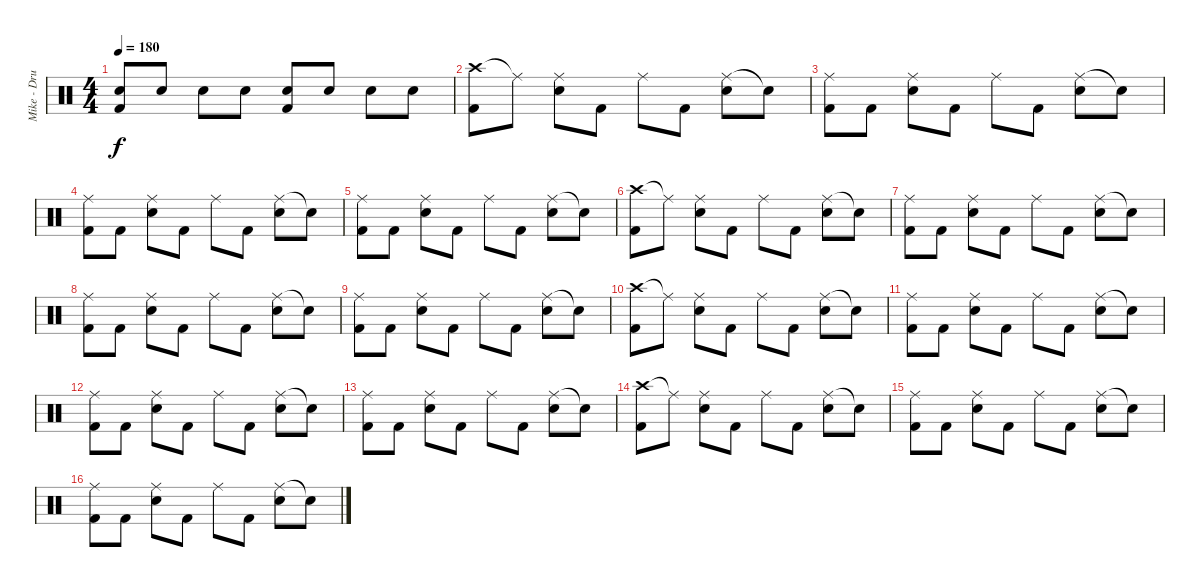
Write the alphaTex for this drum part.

\track ("Mike - Drums" "Mike - Dru") {instrument percussion}
\staff {score}
\articulation defaults
\ts (4 4)
\tempo 180
\clef neutral
\ks c
("Snare (hit) 2" "Kick (hit) 2").8{dy f} "Snare (hit) 2".8 "Snare (hit) 2".8 "Snare (hit) 2".8 ("Snare (hit) 2" "Kick (hit) 2").8 "Snare (hit) 2".8 "Snare (hit) 2".8 "Snare (hit) 2".8 |
("Crash high (hit)" "Kick (hit) 2").8 "Ride (middle)"{t}.8 ("Ride (middle)" "Snare (hit) 2").8 "Kick (hit) 2".8 "Ride (middle)".8 "Kick (hit) 2".8 ("Ride (middle)" "Snare (hit) 2").8 "Snare (hit)"{t}.8 |
("Ride (middle)" "Kick (hit) 2").8 "Kick (hit) 2".8 ("Ride (middle)" "Snare (hit) 2").8 "Kick (hit) 2".8 "Ride (middle)".8 "Kick (hit) 2".8 ("Ride (middle)" "Snare (hit) 2").8 "Snare (hit)"{t}.8 |
("Ride (middle)" "Kick (hit) 2").8 "Kick (hit) 2".8 ("Ride (middle)" "Snare (hit) 2").8 "Kick (hit) 2".8 "Ride (middle)".8 "Kick (hit) 2".8 ("Ride (middle)" "Snare (hit) 2").8 "Snare (hit)"{t}.8 |
("Ride (middle)" "Kick (hit) 2").8 "Kick (hit) 2".8 ("Ride (middle)" "Snare (hit) 2").8 "Kick (hit) 2".8 "Ride (middle)".8 "Kick (hit) 2".8 ("Ride (middle)" "Snare (hit) 2").8 "Snare (hit)"{t}.8 |
("Crash high (hit)" "Kick (hit) 2").8 "Ride (middle)"{t}.8 ("Ride (middle)" "Snare (hit) 2").8 "Kick (hit) 2".8 "Ride (middle)".8 "Kick (hit) 2".8 ("Ride (middle)" "Snare (hit) 2").8 "Snare (hit)"{t}.8 |
("Ride (middle)" "Kick (hit) 2").8 "Kick (hit) 2".8 ("Ride (middle)" "Snare (hit) 2").8 "Kick (hit) 2".8 "Ride (middle)".8 "Kick (hit) 2".8 ("Ride (middle)" "Snare (hit) 2").8 "Snare (hit)"{t}.8 |
("Ride (middle)" "Kick (hit) 2").8 "Kick (hit) 2".8 ("Ride (middle)" "Snare (hit) 2").8 "Kick (hit) 2".8 "Ride (middle)".8 "Kick (hit) 2".8 ("Ride (middle)" "Snare (hit) 2").8 "Snare (hit)"{t}.8 |
("Ride (middle)" "Kick (hit) 2").8 "Kick (hit) 2".8 ("Ride (middle)" "Snare (hit) 2").8 "Kick (hit) 2".8 "Ride (middle)".8 "Kick (hit) 2".8 ("Ride (middle)" "Snare (hit) 2").8 "Snare (hit)"{t}.8 |
("Crash high (hit)" "Kick (hit) 2").8 "Ride (middle)"{t}.8 ("Ride (middle)" "Snare (hit) 2").8 "Kick (hit) 2".8 "Ride (middle)".8 "Kick (hit) 2".8 ("Ride (middle)" "Snare (hit) 2").8 "Snare (hit)"{t}.8 |
("Ride (middle)" "Kick (hit) 2").8 "Kick (hit) 2".8 ("Ride (middle)" "Snare (hit) 2").8 "Kick (hit) 2".8 "Ride (middle)".8 "Kick (hit) 2".8 ("Ride (middle)" "Snare (hit) 2").8 "Snare (hit)"{t}.8 |
("Ride (middle)" "Kick (hit) 2").8 "Kick (hit) 2".8 ("Ride (middle)" "Snare (hit) 2").8 "Kick (hit) 2".8 "Ride (middle)".8 "Kick (hit) 2".8 ("Ride (middle)" "Snare (hit) 2").8 "Snare (hit)"{t}.8 |
("Ride (middle)" "Kick (hit) 2").8 "Kick (hit) 2".8 ("Ride (middle)" "Snare (hit) 2").8 "Kick (hit) 2".8 "Ride (middle)".8 "Kick (hit) 2".8 ("Ride (middle)" "Snare (hit) 2").8 "Snare (hit)"{t}.8 |
("Crash high (hit)" "Kick (hit) 2").8 "Ride (middle)"{t}.8 ("Ride (middle)" "Snare (hit) 2").8 "Kick (hit) 2".8 "Ride (middle)".8 "Kick (hit) 2".8 ("Ride (middle)" "Snare (hit) 2").8 "Snare (hit)"{t}.8 |
("Ride (middle)" "Kick (hit) 2").8 "Kick (hit) 2".8 ("Ride (middle)" "Snare (hit) 2").8 "Kick (hit) 2".8 "Ride (middle)".8 "Kick (hit) 2".8 ("Ride (middle)" "Snare (hit) 2").8 "Snare (hit)"{t}.8 |
("Ride (middle)" "Kick (hit) 2").8 "Kick (hit) 2".8 ("Ride (middle)" "Snare (hit) 2").8 "Kick (hit) 2".8 "Ride (middle)".8 "Kick (hit) 2".8 ("Ride (middle)" "Snare (hit) 2").8 "Snare (hit)"{t}.8
